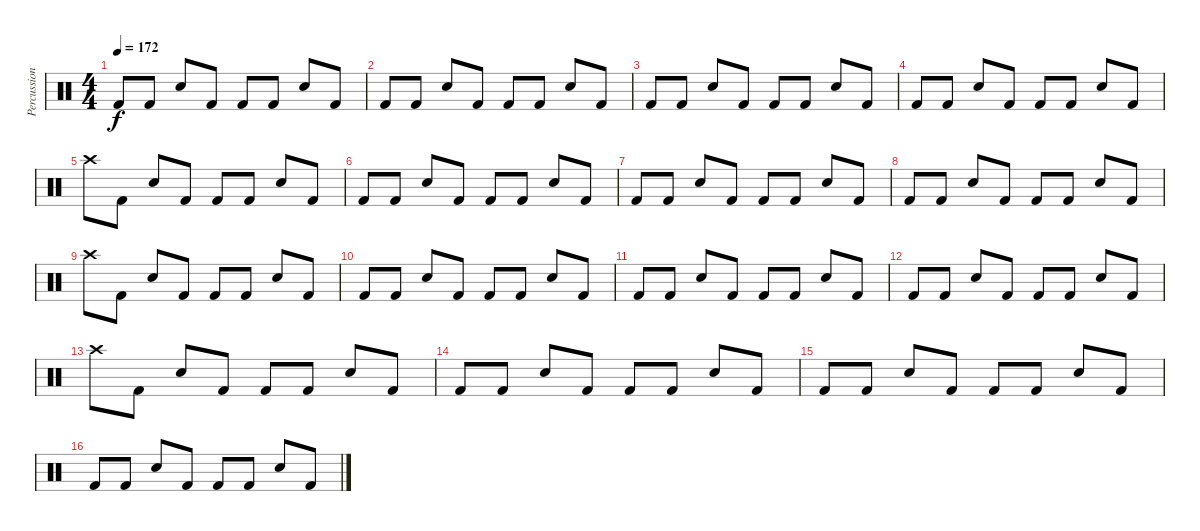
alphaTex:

\track ("Percussion" "Percussion") {instrument percussion}
\staff {score}
\articulation defaults
\ts (4 4)
\tempo 172
\clef neutral
\ks c "Kick (hit) 2".8{dy f} "Kick (hit) 2".8 "Snare (hit) 2".8 "Kick (hit) 2".8 "Kick (hit) 2".8 "Kick (hit) 2".8 "Snare (hit) 2".8 "Kick (hit) 2".8
|
"Kick (hit) 2".8 "Kick (hit) 2".8 "Snare (hit) 2".8 "Kick (hit) 2".8 "Kick (hit) 2".8 "Kick (hit) 2".8 "Snare (hit) 2".8 "Kick (hit) 2".8 |
"Kick (hit) 2".8 "Kick (hit) 2".8 "Snare (hit) 2".8 "Kick (hit) 2".8 "Kick (hit) 2".8 "Kick (hit) 2".8 "Snare (hit) 2".8 "Kick (hit) 2".8 |
"Kick (hit) 2".8 "Kick (hit) 2".8 "Snare (hit) 2".8 "Kick (hit) 2".8 "Kick (hit) 2".8 "Kick (hit) 2".8 "Snare (hit) 2".8 "Kick (hit) 2".8 |
"Crash high (hit)".8 "Kick (hit) 2".8 "Snare (hit) 2".8 "Kick (hit) 2".8 "Kick (hit) 2".8 "Kick (hit) 2".8 "Snare (hit) 2".8 "Kick (hit) 2".8 |
"Kick (hit) 2".8 "Kick (hit) 2".8 "Snare (hit) 2".8 "Kick (hit) 2".8 "Kick (hit) 2".8 "Kick (hit) 2".8 "Snare (hit) 2".8 "Kick (hit) 2".8 |
"Kick (hit) 2".8 "Kick (hit) 2".8 "Snare (hit) 2".8 "Kick (hit) 2".8 "Kick (hit) 2".8 "Kick (hit) 2".8 "Snare (hit) 2".8 "Kick (hit) 2".8 |
"Kick (hit) 2".8 "Kick (hit) 2".8 "Snare (hit) 2".8 "Kick (hit) 2".8 "Kick (hit) 2".8 "Kick (hit) 2".8 "Snare (hit) 2".8 "Kick (hit) 2".8 |
"Crash high (hit)".8 "Kick (hit) 2".8 "Snare (hit) 2".8 "Kick (hit) 2".8 "Kick (hit) 2".8 "Kick (hit) 2".8 "Snare (hit) 2".8 "Kick (hit) 2".8 |
"Kick (hit) 2".8 "Kick (hit) 2".8 "Snare (hit) 2".8 "Kick (hit) 2".8 "Kick (hit) 2".8 "Kick (hit) 2".8 "Snare (hit) 2".8 "Kick (hit) 2".8 |
"Kick (hit) 2".8 "Kick (hit) 2".8 "Snare (hit) 2".8 "Kick (hit) 2".8 "Kick (hit) 2".8 "Kick (hit) 2".8 "Snare (hit) 2".8 "Kick (hit) 2".8 |
"Kick (hit) 2".8 "Kick (hit) 2".8 "Snare (hit) 2".8 "Kick (hit) 2".8 "Kick (hit) 2".8 "Kick (hit) 2".8 "Snare (hit) 2".8 "Kick (hit) 2".8 |
"Crash high (hit)".8 "Kick (hit) 2".8 "Snare (hit) 2".8 "Kick (hit) 2".8 "Kick (hit) 2".8 "Kick (hit) 2".8 "Snare (hit) 2".8 "Kick (hit) 2".8 |
"Kick (hit) 2".8 "Kick (hit) 2".8 "Snare (hit) 2".8 "Kick (hit) 2".8 "Kick (hit) 2".8 "Kick (hit) 2".8 "Snare (hit) 2".8 "Kick (hit) 2".8 |
"Kick (hit) 2".8 "Kick (hit) 2".8 "Snare (hit) 2".8 "Kick (hit) 2".8 "Kick (hit) 2".8 "Kick (hit) 2".8 "Snare (hit) 2".8 "Kick (hit) 2".8 |
"Kick (hit) 2".8 "Kick (hit) 2".8 "Snare (hit) 2".8 "Kick (hit) 2".8 "Kick (hit) 2".8 "Kick (hit) 2".8 "Snare (hit) 2".8 "Kick (hit) 2".8
